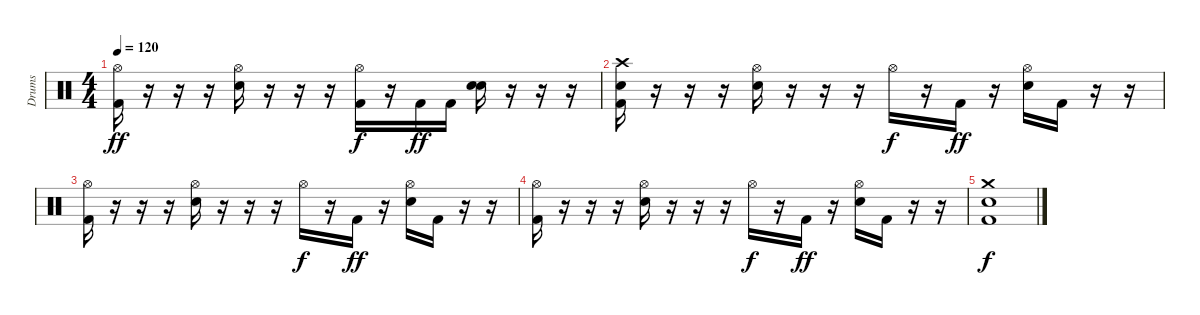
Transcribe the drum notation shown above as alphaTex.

\track ("Drums" "Drums") {instrument percussion}
\staff {score}
\articulation defaults
\ts (4 4)
\tempo 120
\clef neutral
\ks c
("Hi-Hat (open)" "Kick (hit) 2").16{dy ff} r.16 r.16 r.16 ("Hi-Hat (open)" "Electric Snare (hit)").16 r.16 r.16 r.16 ("Hi-Hat (open)" "Kick (hit) 2").16{dy f} r.16 "Kick (hit) 2".16{dy ff} "Kick (hit) 2".16 ("Snare (hit) 2" "Electric Snare (hit)").16 r.16 r.16 r.16 |
("Crash high (hit)" "Electric Snare (hit)" "Kick (hit) 2").16 r.16 r.16 r.16 ("Hi-Hat (open)" "Electric Snare (hit)").16 r.16 r.16 r.16 "Hi-Hat (open)".16{dy f} r.16 "Kick (hit) 2".16{dy ff} r.16 ("Hi-Hat (open)" "Electric Snare (hit)").16 "Kick (hit) 2".16 r.16 r.16 |
("Hi-Hat (open)" "Kick (hit) 2").16 r.16 r.16 r.16 ("Hi-Hat (open)" "Electric Snare (hit)").16 r.16 r.16 r.16 "Hi-Hat (open)".16{dy f} r.16 "Kick (hit) 2".16{dy ff} r.16 ("Hi-Hat (open)" "Electric Snare (hit)").16 "Kick (hit) 2".16 r.16 r.16 |
("Hi-Hat (open)" "Kick (hit) 2").16 r.16 r.16 r.16 ("Hi-Hat (open)" "Electric Snare (hit)").16 r.16 r.16 r.16 "Hi-Hat (open)".16{dy f} r.16 "Kick (hit) 2".16{dy ff} r.16 ("Hi-Hat (open)" "Electric Snare (hit)").16 "Kick (hit) 2".16 r.16 r.16 |
("Crash medium (hit)" "Electric Snare (hit)" "Kick (hit) 2").1{dy f}
